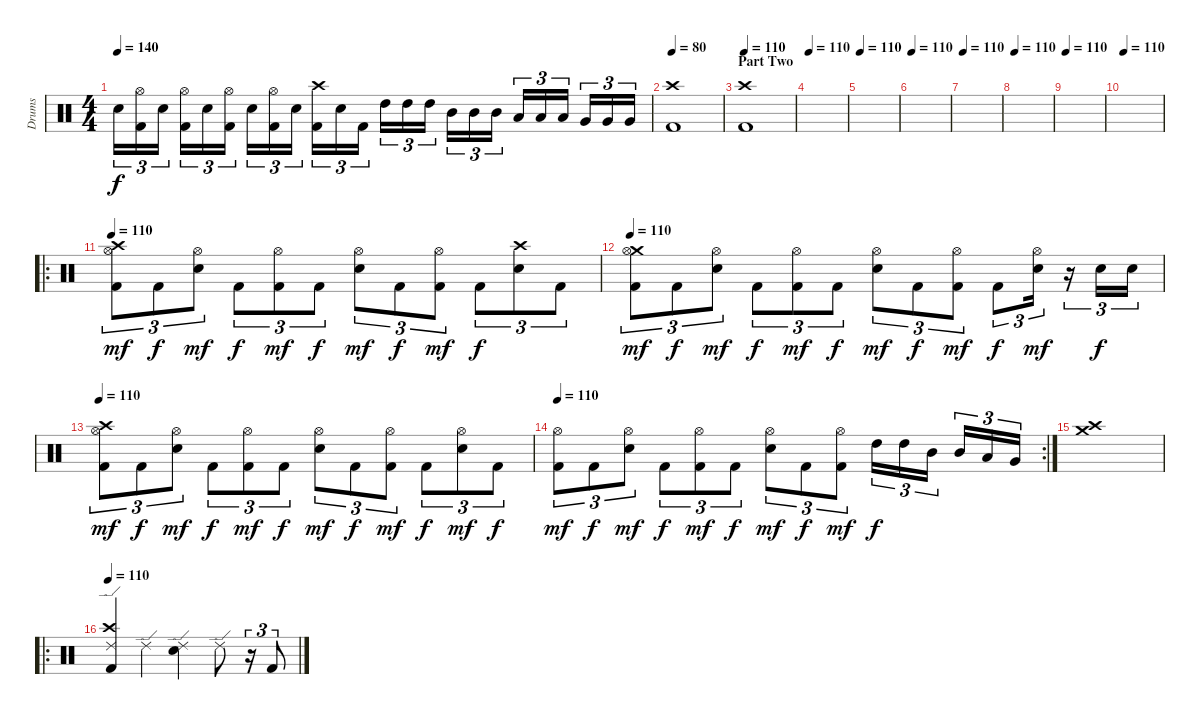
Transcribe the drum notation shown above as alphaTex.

\track ("Drums" "Drums") {instrument percussion}
\staff {score}
\articulation defaults
\ts (4 4)
\tempo 140
\clef neutral
\ks c "Electric Snare (hit)".16{tu (3 2) dy f}
("Hi-Hat (open)" "Kick (hit) 2").16{tu (3 2)} "Electric Snare (hit)".16{tu (3 2)} ("Hi-Hat (open)" "Kick (hit) 2").16{tu (3 2)} "Electric Snare (hit)".16{tu (3 2)} ("Hi-Hat (open)" "Kick (hit) 2").16{tu (3 2)} "Electric Snare (hit)".16{tu (3 2)} ("Hi-Hat (open)" "Kick (hit) 2").16{tu (3 2)} "Electric Snare (hit)".16{tu (3 2)} ("Crash high (hit)" "Kick (hit) 2").16{tu (3 2)} "Electric Snare (hit)".16{tu (3 2)} "Kick (hit) 2".16{tu (3 2)} "High Tom (hit)".16{tu (3 2)} "High Tom (hit)".16{tu (3 2)} "High Tom (hit)".16{tu (3 2)} "Mid Tom (hit)".16{tu (3 2)} "Mid Tom (hit)".16{tu (3 2)} "Mid Tom (hit)".16{tu (3 2)} "Low Tom (hit)".16{tu (3 2)} "Low Tom (hit)".16{tu (3 2)} "Low Tom (hit)".16{tu (3 2)} "Very Low Tom (hit)".16{tu (3 2)} "Very Low Tom (hit)".16{tu (3 2)} "Very Low Tom (hit)".16{tu (3 2)} |
\tempo 80
("Crash high (hit)" "Kick (hit) 2").1 |
\section ("" "Part Two")
\tempo 140
\tempo 110
("Crash high (hit)" "Kick (hit) 2").1{volume 16} |
\tempo 110
|
\tempo 110
|
\tempo 110
|
\tempo 110
|
\tempo 110
|
\tempo 110
|
\tempo 110
|
\ro
\tempo 110
("Crash high (hit)" "Hi-Hat (open)" "Kick (hit) 2").8{tu (3 2) dy mf} "Kick (hit) 2".8{tu (3 2) dy f} ("Hi-Hat (open)" "Electric Snare (hit)").8{tu (3 2) dy mf} "Kick (hit) 2".8{tu (3 2) dy f} ("Hi-Hat (open)" "Kick (hit) 2").8{tu (3 2) dy mf} "Kick (hit) 2".8{tu (3 2) dy f} ("Hi-Hat (open)" "Electric Snare (hit)").8{tu (3 2) dy mf} "Kick (hit) 2".8{tu (3 2) dy f} ("Hi-Hat (open)" "Kick (hit) 2").8{tu (3 2) dy mf} "Kick (hit) 2".8{tu (3 2) dy f} ("Crash high (hit)" "Electric Snare (hit)").8{tu (3 2)} "Kick (hit) 2".8{tu (3 2)} |
\tempo 110
("Crash medium (hit)" "Hi-Hat (open)" "Kick (hit) 2").8{tu (3 2) dy mf} "Kick (hit) 2".8{tu (3 2) dy f} ("Hi-Hat (open)" "Electric Snare (hit)").8{tu (3 2) dy mf} "Kick (hit) 2".8{tu (3 2) dy f} ("Hi-Hat (open)" "Kick (hit) 2").8{tu (3 2) dy mf} "Kick (hit) 2".8{tu (3 2) dy f} ("Hi-Hat (open)" "Electric Snare (hit)").8{tu (3 2) dy mf} "Kick (hit) 2".8{tu (3 2) dy f} ("Hi-Hat (open)" "Kick (hit) 2").8{tu (3 2) dy mf} "Kick (hit) 2".8{tu (3 2) dy f} ("Hi-Hat (open)" "Electric Snare (hit)").16{tu (3 2) dy mf} r.16{tu (3 2)} "Electric Snare (hit)".16{tu (3 2) dy f} "Electric Snare (hit)".16{tu (3 2)} |
\tempo 110
("Crash high (hit)" "Hi-Hat (open)" "Kick (hit) 2").8{tu (3 2) dy mf} "Kick (hit) 2".8{tu (3 2) dy f} ("Hi-Hat (open)" "Electric Snare (hit)").8{tu (3 2) dy mf} "Kick (hit) 2".8{tu (3 2) dy f} ("Hi-Hat (open)" "Kick (hit) 2").8{tu (3 2) dy mf} "Kick (hit) 2".8{tu (3 2) dy f} ("Hi-Hat (open)" "Electric Snare (hit)").8{tu (3 2) dy mf} "Kick (hit) 2".8{tu (3 2) dy f} ("Hi-Hat (open)" "Kick (hit) 2").8{tu (3 2) dy mf} "Kick (hit) 2".8{tu (3 2) dy f} ("Hi-Hat (open)" "Electric Snare (hit)").8{tu (3 2) dy mf} "Kick (hit) 2".8{tu (3 2) dy f} |
\rc 2
\tempo 110
("Hi-Hat (open)" "Kick (hit) 2").8{tu (3 2) dy mf} "Kick (hit) 2".8{tu (3 2) dy f} ("Hi-Hat (open)" "Electric Snare (hit)").8{tu (3 2) dy mf} "Kick (hit) 2".8{tu (3 2) dy f} ("Hi-Hat (open)" "Kick (hit) 2").8{tu (3 2) dy mf} "Kick (hit) 2".8{tu (3 2) dy f} ("Hi-Hat (open)" "Electric Snare (hit)").8{tu (3 2) dy mf} "Kick (hit) 2".8{tu (3 2) dy f} ("Hi-Hat (open)" "Kick (hit) 2").8{tu (3 2) dy mf} "High Tom (hit)".16{tu (3 2) dy f} "High Tom (hit)".16{tu (3 2)} "Mid Tom (hit)".16{tu (3 2)} "Mid Tom (hit)".16{tu (3 2)} "Low Tom (hit)".16{tu (3 2)} "Very Low Tom (hit)".16{tu (3 2)} |
("Crash medium (hit)" "Crash high (hit)").1 |
\ro
\tempo 110
("Ride (edge) 2" "Crash high (hit)" "Kick (hit) 2").4{volume 12} "Ride (edge) 2".4 ("Ride (edge) 2" "Electric Snare (hit)").4 "Ride (edge) 2".8 r.16{tu (3 2)} "Kick (hit) 2".8{tu (3 2)}
